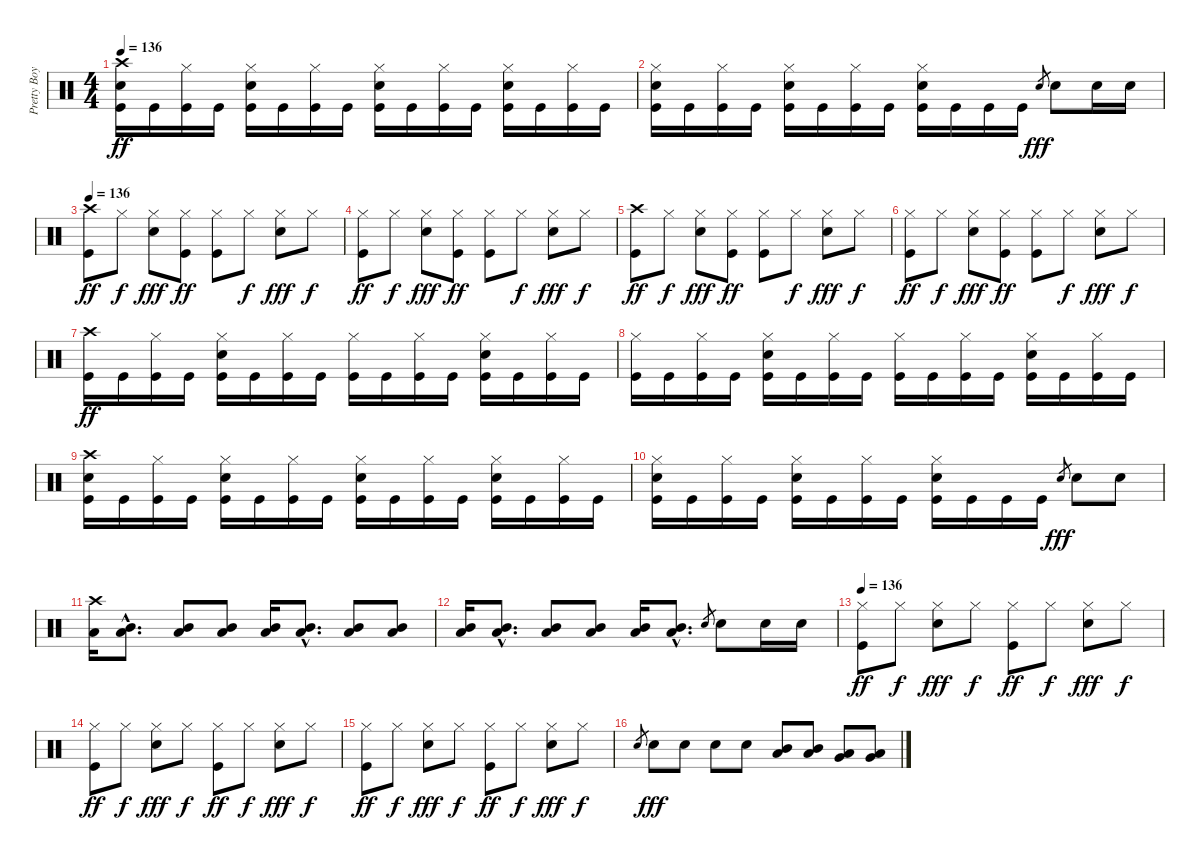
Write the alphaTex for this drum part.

\track ("Pretty Boy Geoff (Lars Drums)" "Pretty Boy") {instrument percussion}
\staff {score}
\articulation defaults
\ts (4 4)
\tempo 136
\clef neutral
\ks c
("Crash high (hit)" "Electric Snare (hit)" "Kick (hit)").16{dy ff} "Kick (hit)".16 ("Hi-Hat (closed)" "Kick (hit)").16 "Kick (hit)".16 ("Hi-Hat (closed)" "Electric Snare (hit)" "Kick (hit)").16 "Kick (hit)".16 ("Hi-Hat (closed)" "Kick (hit)").16 "Kick (hit)".16 ("Hi-Hat (closed)" "Electric Snare (hit)" "Kick (hit)").16 "Kick (hit)".16 ("Hi-Hat (closed)" "Kick (hit)").16 "Kick (hit)".16 ("Hi-Hat (closed)" "Electric Snare (hit)" "Kick (hit)").16 "Kick (hit)".16 ("Hi-Hat (closed)" "Kick (hit)").16 "Kick (hit)".16 |
("Hi-Hat (closed)" "Electric Snare (hit)" "Kick (hit)").16 "Kick (hit)".16 ("Hi-Hat (closed)" "Kick (hit)").16 "Kick (hit)".16 ("Hi-Hat (closed)" "Electric Snare (hit)" "Kick (hit)").16 "Kick (hit)".16 ("Hi-Hat (closed)" "Kick (hit)").16 "Kick (hit)".16 ("Hi-Hat (closed)" "Electric Snare (hit)" "Kick (hit)").16 "Kick (hit)".16 "Kick (hit)".16 "Kick (hit)".16 "Electric Snare (hit)".8{gr dy fff} "Electric Snare (hit)".8 "Electric Snare (hit)".16 "Electric Snare (hit)".16 |
\tempo 136
("Crash high (hit)" "Kick (hit)").8{dy ff} "Hi-Hat (closed)".8{dy f} ("Hi-Hat (closed)" "Electric Snare (hit)").8{dy fff} ("Hi-Hat (closed)" "Kick (hit)").8{dy ff} ("Hi-Hat (closed)" "Kick (hit)").8 "Hi-Hat (closed)".8{dy f} ("Hi-Hat (closed)" "Electric Snare (hit)").8{dy fff} "Hi-Hat (closed)".8{dy f} |
("Hi-Hat (closed)" "Kick (hit)").8{dy ff} "Hi-Hat (closed)".8{dy f} ("Hi-Hat (closed)" "Electric Snare (hit)").8{dy fff} ("Hi-Hat (closed)" "Kick (hit)").8{dy ff} ("Hi-Hat (closed)" "Kick (hit)").8 "Hi-Hat (closed)".8{dy f} ("Hi-Hat (closed)" "Electric Snare (hit)").8{dy fff} "Hi-Hat (closed)".8{dy f} |
("Crash high (hit)" "Kick (hit)").8{dy ff} "Hi-Hat (closed)".8{dy f} ("Hi-Hat (closed)" "Electric Snare (hit)").8{dy fff} ("Hi-Hat (closed)" "Kick (hit)").8{dy ff} ("Hi-Hat (closed)" "Kick (hit)").8 "Hi-Hat (closed)".8{dy f} ("Hi-Hat (closed)" "Electric Snare (hit)").8{dy fff} "Hi-Hat (closed)".8{dy f} |
("Hi-Hat (closed)" "Kick (hit)").8{dy ff} "Hi-Hat (closed)".8{dy f} ("Hi-Hat (closed)" "Electric Snare (hit)").8{dy fff} ("Hi-Hat (closed)" "Kick (hit)").8{dy ff} ("Hi-Hat (closed)" "Kick (hit)").8 "Hi-Hat (closed)".8{dy f} ("Hi-Hat (closed)" "Electric Snare (hit)").8{dy fff} "Hi-Hat (closed)".8{dy f} |
("Crash high (hit)" "Kick (hit)").16{dy ff} "Kick (hit)".16 ("Hi-Hat (closed)" "Kick (hit)").16 "Kick (hit)".16 ("Hi-Hat (closed)" "Electric Snare (hit)" "Kick (hit)").16 "Kick (hit)".16 ("Hi-Hat (closed)" "Kick (hit)").16 "Kick (hit)".16 ("Hi-Hat (closed)" "Kick (hit)").16 "Kick (hit)".16 ("Hi-Hat (closed)" "Kick (hit)").16 "Kick (hit)".16 ("Hi-Hat (closed)" "Electric Snare (hit)" "Kick (hit)").16 "Kick (hit)".16 ("Hi-Hat (closed)" "Kick (hit)").16 "Kick (hit)".16 |
("Hi-Hat (closed)" "Kick (hit)").16 "Kick (hit)".16 ("Hi-Hat (closed)" "Kick (hit)").16 "Kick (hit)".16 ("Hi-Hat (closed)" "Electric Snare (hit)" "Kick (hit)").16 "Kick (hit)".16 ("Hi-Hat (closed)" "Kick (hit)").16 "Kick (hit)".16 ("Hi-Hat (closed)" "Kick (hit)").16 "Kick (hit)".16 ("Hi-Hat (closed)" "Kick (hit)").16 "Kick (hit)".16 ("Hi-Hat (closed)" "Electric Snare (hit)" "Kick (hit)").16 "Kick (hit)".16 ("Hi-Hat (closed)" "Kick (hit)").16 "Kick (hit)".16 |
("Crash high (hit)" "Electric Snare (hit)" "Kick (hit)").16 "Kick (hit)".16 ("Hi-Hat (closed)" "Kick (hit)").16 "Kick (hit)".16 ("Hi-Hat (closed)" "Electric Snare (hit)" "Kick (hit)").16 "Kick (hit)".16 ("Hi-Hat (closed)" "Kick (hit)").16 "Kick (hit)".16 ("Hi-Hat (closed)" "Electric Snare (hit)" "Kick (hit)").16 "Kick (hit)".16 ("Hi-Hat (closed)" "Kick (hit)").16 "Kick (hit)".16 ("Hi-Hat (closed)" "Electric Snare (hit)" "Kick (hit)").16 "Kick (hit)".16 ("Hi-Hat (closed)" "Kick (hit)").16 "Kick (hit)".16 |
("Hi-Hat (closed)" "Electric Snare (hit)" "Kick (hit)").16 "Kick (hit)".16 ("Hi-Hat (closed)" "Kick (hit)").16 "Kick (hit)".16 ("Hi-Hat (closed)" "Electric Snare (hit)" "Kick (hit)").16 "Kick (hit)".16 ("Hi-Hat (closed)" "Kick (hit)").16 "Kick (hit)".16 ("Hi-Hat (closed)" "Electric Snare (hit)" "Kick (hit)").16 "Kick (hit)".16 "Kick (hit)".16 "Kick (hit)".16 "Electric Snare (hit)".8{gr dy fff} "Electric Snare (hit)".8 "Electric Snare (hit)".8 |
("Crash high (hit)" "Low Tom (hit)").16 ("Mid Tom (hit)"{hac} "Low Tom (hit)"{hac}).8{d} ("Mid Tom (hit)" "Low Tom (hit)").8 ("Mid Tom (hit)" "Low Tom (hit)").8 ("Mid Tom (hit)" "Low Tom (hit)").16 ("Mid Tom (hit)"{hac} "Low Tom (hit)"{hac}).8{d} ("Mid Tom (hit)" "Low Tom (hit)").8 ("Mid Tom (hit)" "Low Tom (hit)").8 |
("Mid Tom (hit)" "Low Tom (hit)").16 ("Mid Tom (hit)"{hac} "Low Tom (hit)"{hac}).8{d} ("Mid Tom (hit)" "Low Tom (hit)").8 ("Mid Tom (hit)" "Low Tom (hit)").8 ("Mid Tom (hit)" "Low Tom (hit)").16 ("Mid Tom (hit)"{hac} "Low Tom (hit)"{hac}).8{d} "Electric Snare (hit)".8{gr} "Electric Snare (hit)".8 "Electric Snare (hit)".16 "Electric Snare (hit)".16 |
\tempo 136
("Hi-Hat (closed)" "Kick (hit)").8{dy ff} "Hi-Hat (closed)".8{dy f} ("Hi-Hat (closed)" "Electric Snare (hit)").8{dy fff} "Hi-Hat (closed)".8{dy f} ("Hi-Hat (closed)" "Kick (hit)").8{dy ff} "Hi-Hat (closed)".8{dy f} ("Hi-Hat (closed)" "Electric Snare (hit)").8{dy fff} "Hi-Hat (closed)".8{dy f} |
("Hi-Hat (closed)" "Kick (hit)").8{dy ff} "Hi-Hat (closed)".8{dy f} ("Hi-Hat (closed)" "Electric Snare (hit)").8{dy fff} "Hi-Hat (closed)".8{dy f} ("Hi-Hat (closed)" "Kick (hit)").8{dy ff} "Hi-Hat (closed)".8{dy f} ("Hi-Hat (closed)" "Electric Snare (hit)").8{dy fff} "Hi-Hat (closed)".8{dy f} |
("Hi-Hat (closed)" "Kick (hit)").8{dy ff} "Hi-Hat (closed)".8{dy f} ("Hi-Hat (closed)" "Electric Snare (hit)").8{dy fff} "Hi-Hat (closed)".8{dy f} ("Hi-Hat (closed)" "Kick (hit)").8{dy ff} "Hi-Hat (closed)".8{dy f} ("Hi-Hat (closed)" "Electric Snare (hit)").8{dy fff} "Hi-Hat (closed)".8{dy f} |
"Electric Snare (hit)".8{gr} "Electric Snare (hit)".8{dy fff} "Electric Snare (hit)".8 "Electric Snare (hit)".8 "Electric Snare (hit)".8 ("Mid Tom (hit)" "Low Tom (hit)").8 ("Mid Tom (hit)" "Low Tom (hit)").8 ("Low Tom (hit)" "Very Low Tom (hit)").8 ("Low Tom (hit)" "Very Low Tom (hit)").8
